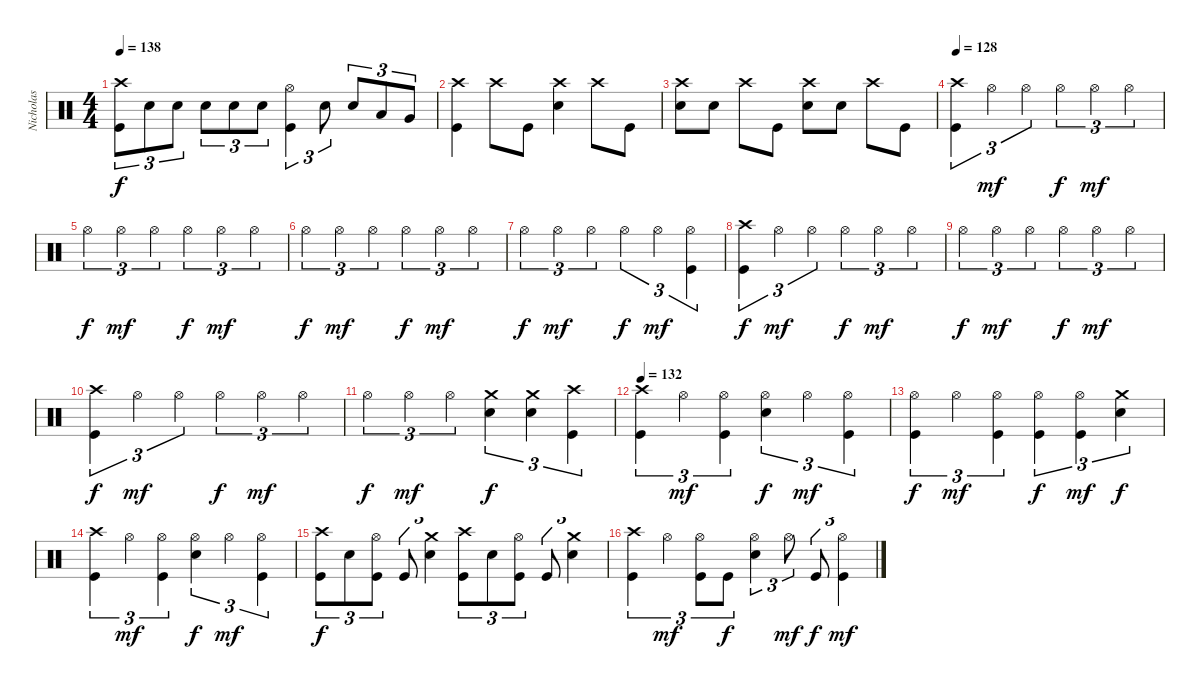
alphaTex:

\track ("Nicholas" "Nicholas") {instrument percussion}
\staff {score}
\articulation defaults
\ts (4 4)
\tempo 138
\clef neutral
\ks c
("Crash high (hit)" "Kick (hit)").8{tu (3 2) dy f} "Electric Snare (hit)".8{tu (3 2)} "Electric Snare (hit)".8{tu (3 2)} "Electric Snare (hit)".8{tu (3 2)} "Electric Snare (hit)".8{tu (3 2)} "Electric Snare (hit)".8{tu (3 2)} ("Hi-Hat (open)" "Kick (hit)").4{tu (3 2)} "Electric Snare (hit)".8{tu (3 2)} "Electric Snare (hit)".8{tu (3 2)} "Low Tom (hit)".8{tu (3 2)} "Very Low Tom (hit)".8{tu (3 2)} |
("Crash high (hit)" "Kick (hit)").4 "Crash high (hit)".8 "Kick (hit)".8 ("Crash high (hit)" "Electric Snare (hit)").4 "Crash high (hit)".8 "Kick (hit)".8 |
("Crash high (hit)" "Electric Snare (hit)").8 "Electric Snare (hit)".8 "Crash high (hit)".8 "Kick (hit)".8 ("Crash high (hit)" "Electric Snare (hit)").8 "Electric Snare (hit)".8 "Crash high (hit)".8 "Kick (hit)".8 |
\tempo 128
("Crash high (hit)" "Kick (hit)").4{tu (3 2)} "Hi-Hat (open)".4{tu (3 2) dy mf} "Hi-Hat (open)".4{tu (3 2)} "Hi-Hat (open)".4{tu (3 2) dy f} "Hi-Hat (open)".4{tu (3 2) dy mf} "Hi-Hat (open)".4{tu (3 2)} |
"Hi-Hat (open)".4{tu (3 2) dy f} "Hi-Hat (open)".4{tu (3 2) dy mf} "Hi-Hat (open)".4{tu (3 2)} "Hi-Hat (open)".4{tu (3 2) dy f} "Hi-Hat (open)".4{tu (3 2) dy mf} "Hi-Hat (open)".4{tu (3 2)} |
"Hi-Hat (open)".4{tu (3 2) dy f} "Hi-Hat (open)".4{tu (3 2) dy mf} "Hi-Hat (open)".4{tu (3 2)} "Hi-Hat (open)".4{tu (3 2) dy f} "Hi-Hat (open)".4{tu (3 2) dy mf} "Hi-Hat (open)".4{tu (3 2)} |
"Hi-Hat (open)".4{tu (3 2) dy f} "Hi-Hat (open)".4{tu (3 2) dy mf} "Hi-Hat (open)".4{tu (3 2)} "Hi-Hat (open)".4{tu (3 2) dy f} "Hi-Hat (open)".4{tu (3 2) dy mf} ("Hi-Hat (open)" "Kick (hit)").4{tu (3 2)} |
("Crash high (hit)" "Kick (hit)").4{tu (3 2) dy f} "Hi-Hat (open)".4{tu (3 2) dy mf} "Hi-Hat (open)".4{tu (3 2)} "Hi-Hat (open)".4{tu (3 2) dy f} "Hi-Hat (open)".4{tu (3 2) dy mf} "Hi-Hat (open)".4{tu (3 2)} |
"Hi-Hat (open)".4{tu (3 2) dy f} "Hi-Hat (open)".4{tu (3 2) dy mf} "Hi-Hat (open)".4{tu (3 2)} "Hi-Hat (open)".4{tu (3 2) dy f} "Hi-Hat (open)".4{tu (3 2) dy mf} "Hi-Hat (open)".4{tu (3 2)} |
("Crash high (hit)" "Kick (hit)").4{tu (3 2) dy f} "Hi-Hat (open)".4{tu (3 2) dy mf} "Hi-Hat (open)".4{tu (3 2)} "Hi-Hat (open)".4{tu (3 2) dy f} "Hi-Hat (open)".4{tu (3 2) dy mf} "Hi-Hat (open)".4{tu (3 2)} |
"Hi-Hat (open)".4{tu (3 2) dy f} "Hi-Hat (open)".4{tu (3 2) dy mf} "Hi-Hat (open)".4{tu (3 2)} ("Crash medium (hit)" "Electric Snare (hit)").4{tu (3 2) dy f} ("Crash medium (hit)" "Electric Snare (hit)").4{tu (3 2)} ("Crash high (hit)" "Kick (hit)").4{tu (3 2)} |
\tempo 132
("Crash high (hit)" "Kick (hit)").4{tu (3 2)} "Hi-Hat (open)".4{tu (3 2) dy mf} ("Hi-Hat (open)" "Kick (hit)").4{tu (3 2)} ("Hi-Hat (open)" "Electric Snare (hit)").4{tu (3 2) dy f} "Hi-Hat (open)".4{tu (3 2) dy mf} ("Hi-Hat (open)" "Kick (hit)").4{tu (3 2)} |
("Hi-Hat (open)" "Kick (hit)").4{tu (3 2) dy f} "Hi-Hat (open)".4{tu (3 2) dy mf} ("Hi-Hat (open)" "Kick (hit)").4{tu (3 2)} ("Hi-Hat (open)" "Kick (hit)").4{tu (3 2) dy f} ("Hi-Hat (open)" "Kick (hit)").4{tu (3 2) dy mf} ("Crash medium (hit)" "Electric Snare (hit)").4{tu (3 2) dy f} |
("Crash high (hit)" "Kick (hit)").4{tu (3 2)} "Hi-Hat (open)".4{tu (3 2) dy mf} ("Hi-Hat (open)" "Kick (hit)").4{tu (3 2)} ("Hi-Hat (open)" "Electric Snare (hit)").4{tu (3 2) dy f} "Hi-Hat (open)".4{tu (3 2) dy mf} ("Hi-Hat (open)" "Kick (hit)").4{tu (3 2)} |
("Crash high (hit)" "Kick (hit)").8{tu (3 2) dy f} "Electric Snare (hit)".8{tu (3 2)} ("Hi-Hat (open)" "Kick (hit)").8{tu (3 2)} "Kick (hit)".8{tu (3 2)} ("Crash medium (hit)" "Electric Snare (hit)").4{tu (3 2)} ("Crash high (hit)" "Kick (hit)").8{tu (3 2)} "Electric Snare (hit)".8{tu (3 2)} ("Hi-Hat (open)" "Kick (hit)").8{tu (3 2)} "Kick (hit)".8{tu (3 2)} ("Crash medium (hit)" "Electric Snare (hit)").4{tu (3 2)} |
("Crash high (hit)" "Kick (hit)").4{tu (3 2)} "Hi-Hat (open)".4{tu (3 2) dy mf} ("Hi-Hat (open)" "Kick (hit)").8{tu (3 2)} "Kick (hit)".8{tu (3 2) dy f} ("Hi-Hat (open)" "Electric Snare (hit)").4{tu (3 2)} "Hi-Hat (open)".8{tu (3 2) dy mf} "Kick (hit)".8{tu (3 2) dy f} ("Hi-Hat (open)" "Kick (hit)").4{tu (3 2) dy mf}
